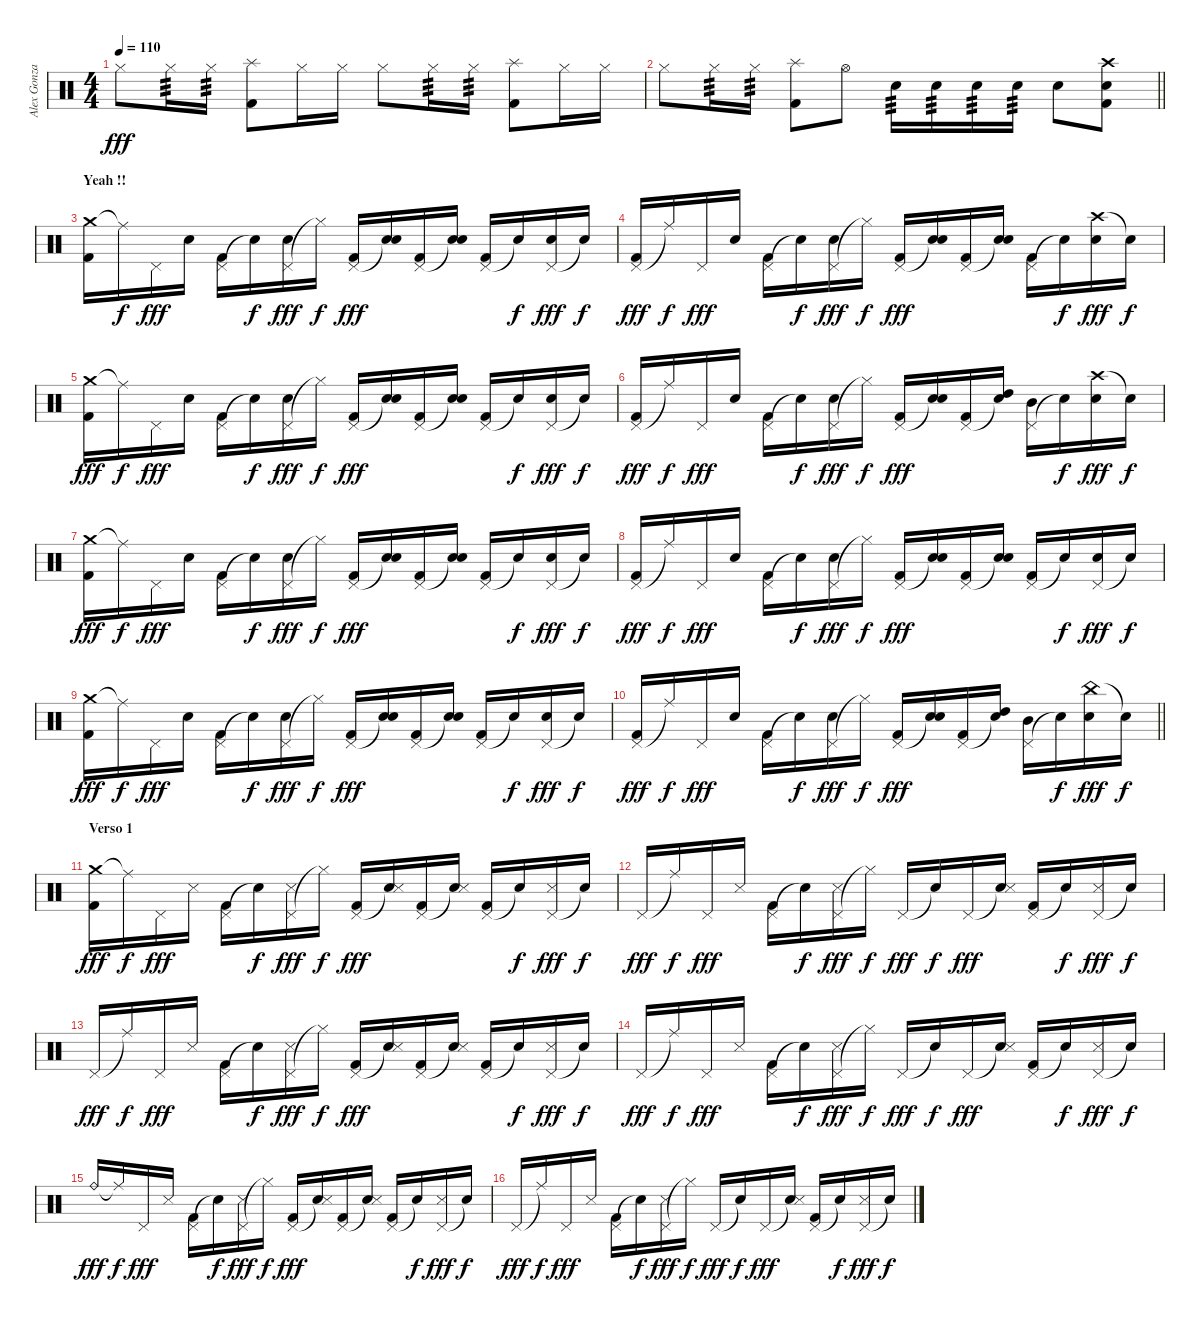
\track ("Alex Gonzalez" "Alex Gonza") {instrument percussion}
\staff {score}
\articulation defaults
\ts (4 4)
\tempo 110
\clef neutral
\ks c "Hi-Hat (closed)".8{dy fff} "Hi-Hat (closed)".16{tp 3} "Hi-Hat (closed)".16{tp 3}
("Splash (hit)" "Kick (hit) 2").8 "Hi-Hat (closed)".16 "Hi-Hat (closed)".16 "Hi-Hat (closed)".8 "Hi-Hat (closed)".16{tp 3} "Hi-Hat (closed)".16{tp 3} ("Splash (hit)" "Kick (hit) 2").8 "Hi-Hat (closed)".16 "Hi-Hat (closed)".16 |
\barLineRight lightlight "Hi-Hat (closed)".8 "Hi-Hat (closed)".16{tp 3} "Hi-Hat (closed)".16{tp 3}
("Splash (hit)" "Kick (hit) 2").8 "Hi-Hat (open)".8 "Electric Snare (hit)".16{tp 3} "Electric Snare (hit)".16{tp 3} "Electric Snare (hit)".16{tp 3} "Electric Snare (hit)".16{tp 3} "Electric Snare (hit)".8 ("Crash high (hit)" "Electric Snare (hit)" "Kick (hit) 2").8 |
\section ("" "Yeah !!")
("Crash medium (hit)" "Kick (hit) 2").16 "Ride (middle)"{t}.16{dy f} "Pedal Hi-Hat (hit)".16{dy fff} "Electric Snare (hit)".16 ("Pedal Hi-Hat (hit)" "Kick (hit) 2").16 "Snare (hit)"{t}.16{dy f} ("Pedal Hi-Hat (hit)" "Electric Snare (hit)").16{dy fff} "Hi-Hat (closed)"{t}.16{dy f} ("Pedal Hi-Hat (hit)" "Kick (hit) 2").16{dy fff} ("Snare (hit)"{t} "Electric Snare (hit)").16 ("Pedal Hi-Hat (hit)" "Kick (hit) 2").16 ("Snare (hit)"{t} "Electric Snare (hit)").16 ("Pedal Hi-Hat (hit)" "Kick (hit) 2").16 "Snare (hit)"{t}.16{dy f} ("Pedal Hi-Hat (hit)" "Electric Snare (hit)").16{dy fff} "Snare (hit)"{t}.16{dy f} |
("Pedal Hi-Hat (hit)" "Kick (hit) 2").16{dy fff} "Ride (middle)"{t}.16{dy f} "Pedal Hi-Hat (hit)".16{dy fff} "Electric Snare (hit)".16 ("Pedal Hi-Hat (hit)" "Kick (hit) 2").16 "Snare (hit)"{t}.16{dy f} ("Pedal Hi-Hat (hit)" "Electric Snare (hit)").16{dy fff} "Hi-Hat (closed)"{t}.16{dy f} ("Pedal Hi-Hat (hit)" "Kick (hit) 2").16{dy fff} ("Snare (hit)"{t} "Electric Snare (hit)").16 ("Pedal Hi-Hat (hit)" "Kick (hit) 2").16 ("Snare (hit)"{t} "Electric Snare (hit)").16 ("Pedal Hi-Hat (hit)" "Kick (hit) 2").16 "Snare (hit)"{t}.16{dy f} ("Crash high (hit)" "Electric Snare (hit)").16{dy fff} "Snare (hit)"{t}.16{dy f} |
("Crash medium (hit)" "Kick (hit) 2").16{dy fff} "Ride (middle)"{t}.16{dy f} "Pedal Hi-Hat (hit)".16{dy fff} "Electric Snare (hit)".16 ("Pedal Hi-Hat (hit)" "Kick (hit) 2").16 "Snare (hit)"{t}.16{dy f} ("Pedal Hi-Hat (hit)" "Electric Snare (hit)").16{dy fff} "Hi-Hat (closed)"{t}.16{dy f} ("Pedal Hi-Hat (hit)" "Kick (hit) 2").16{dy fff} ("Snare (hit)"{t} "Electric Snare (hit)").16 ("Pedal Hi-Hat (hit)" "Kick (hit) 2").16 ("Snare (hit)"{t} "Electric Snare (hit)").16 ("Pedal Hi-Hat (hit)" "Kick (hit) 2").16 "Snare (hit)"{t}.16{dy f} ("Pedal Hi-Hat (hit)" "Electric Snare (hit)").16{dy fff} "Snare (hit)"{t}.16{dy f} |
("Pedal Hi-Hat (hit)" "Kick (hit) 2").16{dy fff} "Ride (middle)"{t}.16{dy f} "Pedal Hi-Hat (hit)".16{dy fff} "Electric Snare (hit)".16 ("Pedal Hi-Hat (hit)" "Kick (hit) 2").16 "Snare (hit)"{t}.16{dy f} ("Pedal Hi-Hat (hit)" "Electric Snare (hit)").16{dy fff} "Hi-Hat (closed)"{t}.16{dy f} ("Pedal Hi-Hat (hit)" "Kick (hit) 2").16{dy fff} ("Snare (hit)"{t} "Electric Snare (hit)").16 ("Pedal Hi-Hat (hit)" "Kick (hit) 2").16 ("Snare (hit)"{t} "High Tom (hit)").16 ("Pedal Hi-Hat (hit)" "Mid Tom (hit)").16 "Snare (hit)"{t}.16{dy f} ("Crash high (hit)" "Electric Snare (hit)").16{dy fff} "Snare (hit)"{t}.16{dy f} |
("Crash medium (hit)" "Kick (hit) 2").16{dy fff} "Ride (middle)"{t}.16{dy f} "Pedal Hi-Hat (hit)".16{dy fff} "Electric Snare (hit)".16 ("Pedal Hi-Hat (hit)" "Kick (hit) 2").16 "Snare (hit)"{t}.16{dy f} ("Pedal Hi-Hat (hit)" "Electric Snare (hit)").16{dy fff} "Hi-Hat (closed)"{t}.16{dy f} ("Pedal Hi-Hat (hit)" "Kick (hit) 2").16{dy fff} ("Snare (hit)"{t} "Electric Snare (hit)").16 ("Pedal Hi-Hat (hit)" "Kick (hit) 2").16 ("Snare (hit)"{t} "Electric Snare (hit)").16 ("Pedal Hi-Hat (hit)" "Kick (hit) 2").16 "Snare (hit)"{t}.16{dy f} ("Pedal Hi-Hat (hit)" "Electric Snare (hit)").16{dy fff} "Snare (hit)"{t}.16{dy f} |
("Pedal Hi-Hat (hit)" "Kick (hit) 2").16{dy fff} "Ride (middle)"{t}.16{dy f} "Pedal Hi-Hat (hit)".16{dy fff} "Electric Snare (hit)".16 ("Pedal Hi-Hat (hit)" "Kick (hit) 2").16 "Snare (hit)"{t}.16{dy f} ("Pedal Hi-Hat (hit)" "Electric Snare (hit)").16{dy fff} "Hi-Hat (closed)"{t}.16{dy f} ("Pedal Hi-Hat (hit)" "Kick (hit) 2").16{dy fff} ("Snare (hit)"{t} "Electric Snare (hit)").16 ("Pedal Hi-Hat (hit)" "Kick (hit) 2").16 ("Snare (hit)"{t} "Electric Snare (hit)").16 ("Pedal Hi-Hat (hit)" "Kick (hit) 2").16 "Snare (hit)"{t}.16{dy f} ("Pedal Hi-Hat (hit)" "Electric Snare (hit)").16{dy fff} "Snare (hit)"{t}.16{dy f} |
("Crash medium (hit)" "Kick (hit) 2").16{dy fff} "Ride (middle)"{t}.16{dy f} "Pedal Hi-Hat (hit)".16{dy fff} "Electric Snare (hit)".16 ("Pedal Hi-Hat (hit)" "Kick (hit) 2").16 "Snare (hit)"{t}.16{dy f} ("Pedal Hi-Hat (hit)" "Electric Snare (hit)").16{dy fff} "Hi-Hat (closed)"{t}.16{dy f} ("Pedal Hi-Hat (hit)" "Kick (hit) 2").16{dy fff} ("Snare (hit)"{t} "Electric Snare (hit)").16 ("Pedal Hi-Hat (hit)" "Kick (hit) 2").16 ("Snare (hit)"{t} "Electric Snare (hit)").16 ("Pedal Hi-Hat (hit)" "Kick (hit) 2").16 "Snare (hit)"{t}.16{dy f} ("Pedal Hi-Hat (hit)" "Electric Snare (hit)").16{dy fff} "Snare (hit)"{t}.16{dy f} |
\barLineRight lightlight
("Pedal Hi-Hat (hit)" "Kick (hit) 2").16{dy fff} "Ride (middle)"{t}.16{dy f} "Pedal Hi-Hat (hit)".16{dy fff} "Electric Snare (hit)".16 ("Pedal Hi-Hat (hit)" "Kick (hit) 2").16 "Snare (hit)"{t}.16{dy f} ("Pedal Hi-Hat (hit)" "Electric Snare (hit)").16{dy fff} "Hi-Hat (closed)"{t}.16{dy f} ("Pedal Hi-Hat (hit)" "Kick (hit) 2").16{dy fff} ("Snare (hit)"{t} "Electric Snare (hit)").16 ("Pedal Hi-Hat (hit)" "Kick (hit) 2").16 ("Snare (hit)"{t} "High Tom (hit)").16 ("Pedal Hi-Hat (hit)" "Mid Tom (hit)").16 "Snare (hit)"{t}.16{dy f} ("China (hit)" "Electric Snare (hit)").16{dy fff} "Snare (hit)"{t}.16{dy f} |
\section ("" "Verso 1")
("Crash medium (hit)" "Kick (hit) 2").16{dy fff} "Ride (middle)"{t}.16{dy f} "Pedal Hi-Hat (hit)".16{dy fff} "Snare (side stick) 3".16 ("Pedal Hi-Hat (hit)" "Kick (hit) 2").16 "Snare (hit)"{t}.16{dy f} ("Pedal Hi-Hat (hit)" "Snare (side stick) 3").16{dy fff} "Hi-Hat (closed)"{t}.16{dy f} ("Pedal Hi-Hat (hit)" "Kick (hit) 2").16{dy fff} ("Snare (hit)"{t} "Snare (side stick) 3").16 ("Pedal Hi-Hat (hit)" "Kick (hit) 2").16 ("Snare (hit)"{t} "Snare (side stick) 3").16 ("Pedal Hi-Hat (hit)" "Kick (hit) 2").16 "Snare (hit)"{t}.16{dy f} ("Pedal Hi-Hat (hit)" "Snare (side stick) 3").16{dy fff} "Snare (hit)"{t}.16{dy f} |
"Pedal Hi-Hat (hit)".16{dy fff} "Ride (middle)"{t}.16{dy f} "Pedal Hi-Hat (hit)".16{dy fff} "Snare (side stick) 3".16 ("Pedal Hi-Hat (hit)" "Kick (hit) 2").16 "Snare (hit)"{t}.16{dy f} ("Pedal Hi-Hat (hit)" "Snare (side stick) 3").16{dy fff} "Hi-Hat (closed)"{t}.16{dy f} "Pedal Hi-Hat (hit)".16{dy fff} "Snare (hit)"{t}.16{dy f} "Pedal Hi-Hat (hit)".16{dy fff} ("Snare (hit)"{t} "Snare (side stick) 3").16 ("Pedal Hi-Hat (hit)" "Kick (hit) 2").16 "Snare (hit)"{t}.16{dy f} ("Pedal Hi-Hat (hit)" "Snare (side stick) 3").16{dy fff} "Snare (hit)"{t}.16{dy f} |
"Pedal Hi-Hat (hit)".16{dy fff} "Ride (middle)"{t}.16{dy f} "Pedal Hi-Hat (hit)".16{dy fff} "Snare (side stick) 3".16 ("Pedal Hi-Hat (hit)" "Kick (hit) 2").16 "Snare (hit)"{t}.16{dy f} ("Pedal Hi-Hat (hit)" "Snare (side stick) 3").16{dy fff} "Hi-Hat (closed)"{t}.16{dy f} ("Pedal Hi-Hat (hit)" "Kick (hit) 2").16{dy fff} ("Snare (hit)"{t} "Snare (side stick) 3").16 ("Pedal Hi-Hat (hit)" "Kick (hit) 2").16 ("Snare (hit)"{t} "Snare (side stick) 3").16 ("Pedal Hi-Hat (hit)" "Kick (hit) 2").16 "Snare (hit)"{t}.16{dy f} ("Pedal Hi-Hat (hit)" "Snare (side stick) 3").16{dy fff} "Snare (hit)"{t}.16{dy f} |
"Pedal Hi-Hat (hit)".16{dy fff} "Ride (middle)"{t}.16{dy f} "Pedal Hi-Hat (hit)".16{dy fff} "Snare (side stick) 3".16 ("Pedal Hi-Hat (hit)" "Kick (hit) 2").16 "Snare (hit)"{t}.16{dy f} ("Pedal Hi-Hat (hit)" "Snare (side stick) 3").16{dy fff} "Hi-Hat (closed)"{t}.16{dy f} "Pedal Hi-Hat (hit)".16{dy fff} "Snare (hit)"{t}.16{dy f} "Pedal Hi-Hat (hit)".16{dy fff} ("Snare (hit)"{t} "Snare (side stick) 3").16 ("Pedal Hi-Hat (hit)" "Kick (hit) 2").16 "Snare (hit)"{t}.16{dy f} ("Pedal Hi-Hat (hit)" "Snare (side stick) 3").16{dy fff} "Snare (hit)"{t}.16{dy f} |
"Ride (bell)".16{dy fff} "Ride (middle)"{t}.16{dy f} "Pedal Hi-Hat (hit)".16{dy fff} "Snare (side stick) 3".16 ("Pedal Hi-Hat (hit)" "Kick (hit) 2").16 "Snare (hit)"{t}.16{dy f} ("Pedal Hi-Hat (hit)" "Snare (side stick) 3").16{dy fff} "Hi-Hat (closed)"{t}.16{dy f} ("Pedal Hi-Hat (hit)" "Kick (hit) 2").16{dy fff} ("Snare (hit)"{t} "Snare (side stick) 3").16 ("Pedal Hi-Hat (hit)" "Kick (hit) 2").16 ("Snare (hit)"{t} "Snare (side stick) 3").16 ("Pedal Hi-Hat (hit)" "Kick (hit) 2").16 "Snare (hit)"{t}.16{dy f} ("Pedal Hi-Hat (hit)" "Snare (side stick) 3").16{dy fff} "Snare (hit)"{t}.16{dy f} |
"Pedal Hi-Hat (hit)".16{dy fff} "Ride (middle)"{t}.16{dy f} "Pedal Hi-Hat (hit)".16{dy fff} "Snare (side stick) 3".16 ("Pedal Hi-Hat (hit)" "Kick (hit) 2").16 "Snare (hit)"{t}.16{dy f} ("Pedal Hi-Hat (hit)" "Snare (side stick) 3").16{dy fff} "Hi-Hat (closed)"{t}.16{dy f} "Pedal Hi-Hat (hit)".16{dy fff} "Snare (hit)"{t}.16{dy f} "Pedal Hi-Hat (hit)".16{dy fff} ("Snare (hit)"{t} "Snare (side stick) 3").16 ("Pedal Hi-Hat (hit)" "Kick (hit) 2").16 "Snare (hit)"{t}.16{dy f} ("Pedal Hi-Hat (hit)" "Snare (side stick) 3").16{dy fff} "Snare (hit)"{t}.16{dy f}
